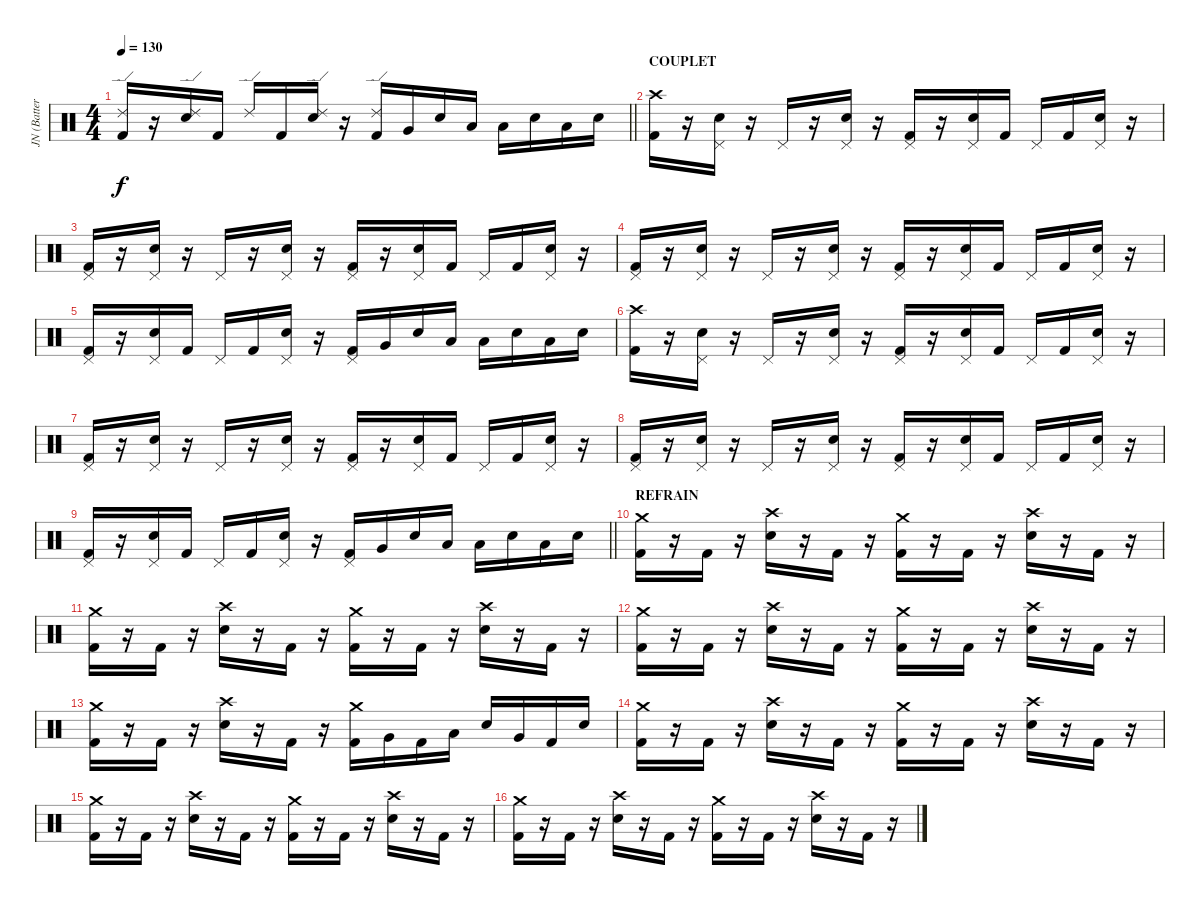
\track ("JN (Batterie)" "JN (Batter") {instrument percussion}
\staff {score}
\articulation defaults
\ts (4 4)
\tempo 130
\clef neutral
\barLineRight lightlight
\ks c
("Ride (edge) 2" "Kick (hit) 2").16{dy f} r.16 ("Ride (edge) 2" "Electric Snare (hit)").16 "Kick (hit) 2".16 "Ride (edge) 2".16 "Kick (hit) 2".16 ("Ride (edge) 2" "Electric Snare (hit)").16 r.16 ("Ride (edge) 2" "Kick (hit) 2").16 "Very Low Tom (hit)".16 "Electric Snare (hit)".16 "Low Tom (hit)".16 "Low Tom (hit)".16 "Electric Snare (hit)".16 "Low Tom (hit)".16 "Electric Snare (hit)".16 |
\section ("" "COUPLET")
("Crash high (hit)" "Kick (hit) 2").16 r.16 ("Pedal Hi-Hat (hit)" "Electric Snare (hit)").16 r.16 "Pedal Hi-Hat (hit)".16 r.16 ("Pedal Hi-Hat (hit)" "Electric Snare (hit)").16 r.16 ("Pedal Hi-Hat (hit)" "Kick (hit) 2").16 r.16 ("Pedal Hi-Hat (hit)" "Electric Snare (hit)").16 "Kick (hit) 2".16 "Pedal Hi-Hat (hit)".16 "Kick (hit) 2".16 ("Pedal Hi-Hat (hit)" "Electric Snare (hit)").16 r.16 |
("Pedal Hi-Hat (hit)" "Kick (hit) 2").16 r.16 ("Pedal Hi-Hat (hit)" "Electric Snare (hit)").16 r.16 "Pedal Hi-Hat (hit)".16 r.16 ("Pedal Hi-Hat (hit)" "Electric Snare (hit)").16 r.16 ("Pedal Hi-Hat (hit)" "Kick (hit) 2").16 r.16 ("Pedal Hi-Hat (hit)" "Electric Snare (hit)").16 "Kick (hit) 2".16 "Pedal Hi-Hat (hit)".16 "Kick (hit) 2".16 ("Pedal Hi-Hat (hit)" "Electric Snare (hit)").16 r.16 |
("Pedal Hi-Hat (hit)" "Kick (hit) 2").16 r.16 ("Pedal Hi-Hat (hit)" "Electric Snare (hit)").16 r.16 "Pedal Hi-Hat (hit)".16 r.16 ("Pedal Hi-Hat (hit)" "Electric Snare (hit)").16 r.16 ("Pedal Hi-Hat (hit)" "Kick (hit) 2").16 r.16 ("Pedal Hi-Hat (hit)" "Electric Snare (hit)").16 "Kick (hit) 2".16 "Pedal Hi-Hat (hit)".16 "Kick (hit) 2".16 ("Pedal Hi-Hat (hit)" "Electric Snare (hit)").16 r.16 |
("Pedal Hi-Hat (hit)" "Kick (hit) 2").16 r.16 ("Pedal Hi-Hat (hit)" "Electric Snare (hit)").16 "Kick (hit) 2".16 "Pedal Hi-Hat (hit)".16 "Kick (hit) 2".16 ("Pedal Hi-Hat (hit)" "Electric Snare (hit)").16 r.16 ("Pedal Hi-Hat (hit)" "Kick (hit) 2").16 "Very Low Tom (hit)".16 "Electric Snare (hit)".16 "Low Tom (hit)".16 "Low Tom (hit)".16 "Electric Snare (hit)".16 "Low Tom (hit)".16 "Electric Snare (hit)".16 |
("Crash high (hit)" "Kick (hit) 2").16 r.16 ("Pedal Hi-Hat (hit)" "Electric Snare (hit)").16 r.16 "Pedal Hi-Hat (hit)".16 r.16 ("Pedal Hi-Hat (hit)" "Electric Snare (hit)").16 r.16 ("Pedal Hi-Hat (hit)" "Kick (hit) 2").16 r.16 ("Pedal Hi-Hat (hit)" "Electric Snare (hit)").16 "Kick (hit) 2".16 "Pedal Hi-Hat (hit)".16 "Kick (hit) 2".16 ("Pedal Hi-Hat (hit)" "Electric Snare (hit)").16 r.16 |
("Pedal Hi-Hat (hit)" "Kick (hit) 2").16 r.16 ("Pedal Hi-Hat (hit)" "Electric Snare (hit)").16 r.16 "Pedal Hi-Hat (hit)".16 r.16 ("Pedal Hi-Hat (hit)" "Electric Snare (hit)").16 r.16 ("Pedal Hi-Hat (hit)" "Kick (hit) 2").16 r.16 ("Pedal Hi-Hat (hit)" "Electric Snare (hit)").16 "Kick (hit) 2".16 "Pedal Hi-Hat (hit)".16 "Kick (hit) 2".16 ("Pedal Hi-Hat (hit)" "Electric Snare (hit)").16 r.16 |
("Pedal Hi-Hat (hit)" "Kick (hit) 2").16 r.16 ("Pedal Hi-Hat (hit)" "Electric Snare (hit)").16 r.16 "Pedal Hi-Hat (hit)".16 r.16 ("Pedal Hi-Hat (hit)" "Electric Snare (hit)").16 r.16 ("Pedal Hi-Hat (hit)" "Kick (hit) 2").16 r.16 ("Pedal Hi-Hat (hit)" "Electric Snare (hit)").16 "Kick (hit) 2".16 "Pedal Hi-Hat (hit)".16 "Kick (hit) 2".16 ("Pedal Hi-Hat (hit)" "Electric Snare (hit)").16 r.16 |
\barLineRight lightlight
("Pedal Hi-Hat (hit)" "Kick (hit) 2").16 r.16 ("Pedal Hi-Hat (hit)" "Electric Snare (hit)").16 "Kick (hit) 2".16 "Pedal Hi-Hat (hit)".16 "Kick (hit) 2".16 ("Pedal Hi-Hat (hit)" "Electric Snare (hit)").16 r.16 ("Pedal Hi-Hat (hit)" "Kick (hit) 2").16 "Very Low Tom (hit)".16 "Electric Snare (hit)".16 "Low Tom (hit)".16 "Low Tom (hit)".16 "Electric Snare (hit)".16 "Low Tom (hit)".16 "Electric Snare (hit)".16 |
\section ("" "REFRAIN")
("Crash medium (hit)" "Kick (hit) 2").16 r.16 "Kick (hit) 2".16 r.16 ("Crash high (hit)" "Electric Snare (hit)").16 r.16 "Kick (hit) 2".16 r.16 ("Crash medium (hit)" "Kick (hit) 2").16 r.16 "Kick (hit) 2".16 r.16 ("Crash high (hit)" "Electric Snare (hit)").16 r.16 "Kick (hit) 2".16 r.16 |
("Crash medium (hit)" "Kick (hit) 2").16 r.16 "Kick (hit) 2".16 r.16 ("Crash high (hit)" "Electric Snare (hit)").16 r.16 "Kick (hit) 2".16 r.16 ("Crash medium (hit)" "Kick (hit) 2").16 r.16 "Kick (hit) 2".16 r.16 ("Crash high (hit)" "Electric Snare (hit)").16 r.16 "Kick (hit) 2".16 r.16 |
("Crash medium (hit)" "Kick (hit) 2").16 r.16 "Kick (hit) 2".16 r.16 ("Crash high (hit)" "Electric Snare (hit)").16 r.16 "Kick (hit) 2".16 r.16 ("Crash medium (hit)" "Kick (hit) 2").16 r.16 "Kick (hit) 2".16 r.16 ("Crash high (hit)" "Electric Snare (hit)").16 r.16 "Kick (hit) 2".16 r.16 |
("Crash medium (hit)" "Kick (hit) 2").16 r.16 "Kick (hit) 2".16 r.16 ("Crash high (hit)" "Electric Snare (hit)").16 r.16 "Kick (hit) 2".16 r.16 ("Crash medium (hit)" "Kick (hit) 2").16 "Very Low Tom (hit)".16 "Kick (hit) 2".16 "Low Tom (hit)".16 "Electric Snare (hit)".16 "Very Low Tom (hit)".16 "Kick (hit) 2".16 "Electric Snare (hit)".16 |
("Crash medium (hit)" "Kick (hit) 2").16 r.16 "Kick (hit) 2".16 r.16 ("Crash high (hit)" "Electric Snare (hit)").16 r.16 "Kick (hit) 2".16 r.16 ("Crash medium (hit)" "Kick (hit) 2").16 r.16 "Kick (hit) 2".16 r.16 ("Crash high (hit)" "Electric Snare (hit)").16 r.16 "Kick (hit) 2".16 r.16 |
("Crash medium (hit)" "Kick (hit) 2").16 r.16 "Kick (hit) 2".16 r.16 ("Crash high (hit)" "Electric Snare (hit)").16 r.16 "Kick (hit) 2".16 r.16 ("Crash medium (hit)" "Kick (hit) 2").16 r.16 "Kick (hit) 2".16 r.16 ("Crash high (hit)" "Electric Snare (hit)").16 r.16 "Kick (hit) 2".16 r.16 |
("Crash medium (hit)" "Kick (hit) 2").16 r.16 "Kick (hit) 2".16 r.16 ("Crash high (hit)" "Electric Snare (hit)").16 r.16 "Kick (hit) 2".16 r.16 ("Crash medium (hit)" "Kick (hit) 2").16 r.16 "Kick (hit) 2".16 r.16 ("Crash high (hit)" "Electric Snare (hit)").16 r.16 "Kick (hit) 2".16 r.16
